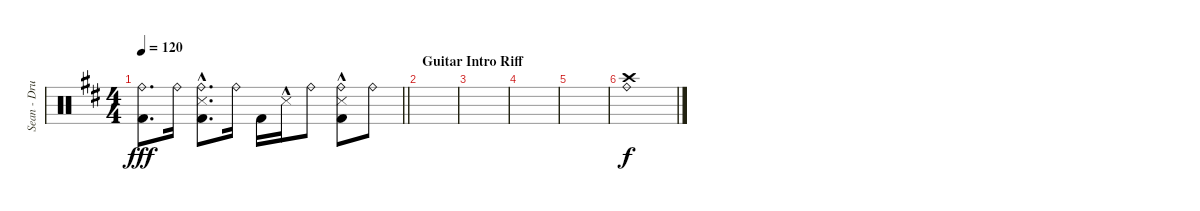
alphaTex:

\track ("Sean - Drums" "Sean - Dru") {instrument percussion}
\staff {score}
\articulation defaults
\ts (4 4)
\tempo 120
\clef neutral
\barLineRight lightlight
\ks d
("Ride (bell)" "Kick (hit) 2").8{d dy fff} "Ride (bell)".16 ("Ride (bell)" "Metronome (hit)"{hac} "Kick (hit) 2").8{d} "Ride (bell)".16 "Kick (hit) 2".16 "Metronome (hit)"{hac}.16 "Ride (bell)".8 ("Ride (bell)" "Metronome (hit)"{hac} "Kick (hit) 2").8 "Ride (bell)".8 |
\section ("" "Guitar Intro Riff")
|
|
|
|
("Ride (bell)" "Crash high (hit)").1{dy f}
